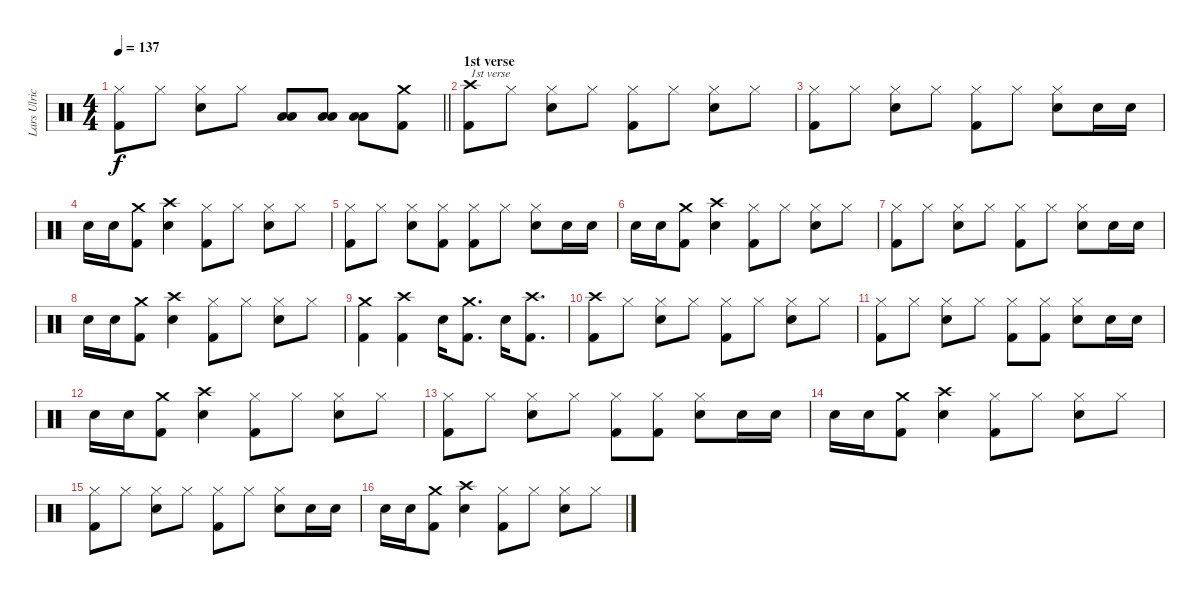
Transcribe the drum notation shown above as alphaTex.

\track ("Lars Ulrich" "Lars Ulric") {instrument percussion}
\staff {score}
\articulation defaults
\ts (4 4)
\tempo 137
\clef neutral
\barLineRight lightlight
\ks c
("Kick (hit) 2" "Hi-Hat (closed)").8{dy f} "Hi-Hat (closed)".8 ("Snare (hit) 2" "Hi-Hat (closed)").8 "Hi-Hat (closed)".8 ("Low Tom (hit)" "Low Floor Tom (hit)").8 ("Low Tom (hit)" "Low Floor Tom (hit)").8 ("Low Tom (hit)" "Low Floor Tom (hit)").8 ("Kick (hit) 2" "Crash medium (hit)").8 |
\section ("" "1st verse")
("Kick (hit) 2" "Crash high (hit)").8{txt "1st verse"} "Hi-Hat (closed)".8 ("Snare (hit) 2" "Hi-Hat (closed)").8 "Hi-Hat (closed)".8 ("Kick (hit) 2" "Hi-Hat (closed)").8 "Hi-Hat (closed)".8 ("Snare (hit) 2" "Hi-Hat (closed)").8 "Hi-Hat (closed)".8 |
("Kick (hit) 2" "Hi-Hat (closed)").8 "Hi-Hat (closed)".8 ("Snare (hit) 2" "Hi-Hat (closed)").8 "Hi-Hat (closed)".8 ("Kick (hit) 2" "Hi-Hat (closed)").8 "Hi-Hat (closed)".8 ("Snare (hit) 2" "Hi-Hat (closed)").8 "Snare (hit) 2".16 "Snare (hit) 2".16 |
"Snare (hit) 2".16 "Snare (hit) 2".16 ("Kick (hit) 2" "Crash medium (hit)").8 ("Snare (hit) 2" "Crash high (hit)").4 ("Kick (hit) 2" "Hi-Hat (closed)").8 "Hi-Hat (closed)".8 ("Snare (hit) 2" "Hi-Hat (closed)").8 "Hi-Hat (closed)".8 |
("Kick (hit) 2" "Hi-Hat (closed)").8 "Hi-Hat (closed)".8 ("Snare (hit) 2" "Hi-Hat (closed)").8 ("Kick (hit) 2" "Hi-Hat (closed)").8 ("Kick (hit) 2" "Hi-Hat (closed)").8 "Hi-Hat (closed)".8 ("Snare (hit) 2" "Hi-Hat (closed)").8 "Snare (hit) 2".16 "Snare (hit) 2".16 |
"Snare (hit) 2".16 "Snare (hit) 2".16 ("Kick (hit) 2" "Crash medium (hit)").8 ("Snare (hit) 2" "Crash high (hit)").4 ("Kick (hit) 2" "Hi-Hat (closed)").8 "Hi-Hat (closed)".8 ("Snare (hit) 2" "Hi-Hat (closed)").8 "Hi-Hat (closed)".8 |
("Kick (hit) 2" "Hi-Hat (closed)").8 "Hi-Hat (closed)".8 ("Snare (hit) 2" "Hi-Hat (closed)").8 "Hi-Hat (closed)".8 ("Kick (hit) 2" "Hi-Hat (closed)").8 "Hi-Hat (closed)".8 ("Snare (hit) 2" "Hi-Hat (closed)").8 "Snare (hit) 2".16 "Snare (hit) 2".16 |
"Snare (hit) 2".16 "Snare (hit) 2".16 ("Kick (hit) 2" "Crash medium (hit)").8 ("Snare (hit) 2" "Crash high (hit)").4 ("Kick (hit) 2" "Hi-Hat (closed)").8 "Hi-Hat (closed)".8 ("Snare (hit) 2" "Hi-Hat (closed)").8 "Hi-Hat (closed)".8 |
("Kick (hit) 2" "Crash medium (hit)").4 ("Kick (hit) 2" "Crash high (hit)").4 "Snare (hit) 2".16 ("Kick (hit) 2" "Crash medium (hit)").8{d} "Snare (hit) 2".16 ("Kick (hit) 2" "Crash high (hit)").8{d} |
("Kick (hit) 2" "Crash high (hit)").8 "Hi-Hat (closed)".8 ("Snare (hit) 2" "Hi-Hat (closed)").8 "Hi-Hat (closed)".8 ("Kick (hit) 2" "Hi-Hat (closed)").8 "Hi-Hat (closed)".8 ("Snare (hit) 2" "Hi-Hat (closed)").8 "Hi-Hat (closed)".8 |
("Kick (hit) 2" "Hi-Hat (closed)").8 "Hi-Hat (closed)".8 ("Snare (hit) 2" "Hi-Hat (closed)").8 "Hi-Hat (closed)".8 ("Kick (hit) 2" "Hi-Hat (closed)").8 ("Kick (hit) 2" "Hi-Hat (closed)").8 ("Snare (hit) 2" "Hi-Hat (closed)").8 "Snare (hit) 2".16 "Snare (hit) 2".16 |
"Snare (hit) 2".16 "Snare (hit) 2".16 ("Kick (hit) 2" "Crash medium (hit)").8 ("Snare (hit) 2" "Crash high (hit)").4 ("Kick (hit) 2" "Hi-Hat (closed)").8 "Hi-Hat (closed)".8 ("Snare (hit) 2" "Hi-Hat (closed)").8 "Hi-Hat (closed)".8 |
("Kick (hit) 2" "Hi-Hat (closed)").8 "Hi-Hat (closed)".8 ("Snare (hit) 2" "Hi-Hat (closed)").8 "Hi-Hat (closed)".8 ("Kick (hit) 2" "Hi-Hat (closed)").8 ("Kick (hit) 2" "Hi-Hat (closed)").8 ("Snare (hit) 2" "Hi-Hat (closed)").8 "Snare (hit) 2".16 "Snare (hit) 2".16 |
"Snare (hit) 2".16 "Snare (hit) 2".16 ("Kick (hit) 2" "Crash medium (hit)").8 ("Snare (hit) 2" "Crash high (hit)").4 ("Kick (hit) 2" "Hi-Hat (closed)").8 "Hi-Hat (closed)".8 ("Snare (hit) 2" "Hi-Hat (closed)").8 "Hi-Hat (closed)".8 |
("Kick (hit) 2" "Hi-Hat (closed)").8 "Hi-Hat (closed)".8 ("Snare (hit) 2" "Hi-Hat (closed)").8 "Hi-Hat (closed)".8 ("Kick (hit) 2" "Hi-Hat (closed)").8 "Hi-Hat (closed)".8 ("Snare (hit) 2" "Hi-Hat (closed)").8 "Snare (hit) 2".16 "Snare (hit) 2".16 |
"Snare (hit) 2".16 "Snare (hit) 2".16 ("Kick (hit) 2" "Crash medium (hit)").8 ("Snare (hit) 2" "Crash high (hit)").4 ("Kick (hit) 2" "Hi-Hat (closed)").8 "Hi-Hat (closed)".8 ("Snare (hit) 2" "Hi-Hat (closed)").8 "Hi-Hat (closed)".8
